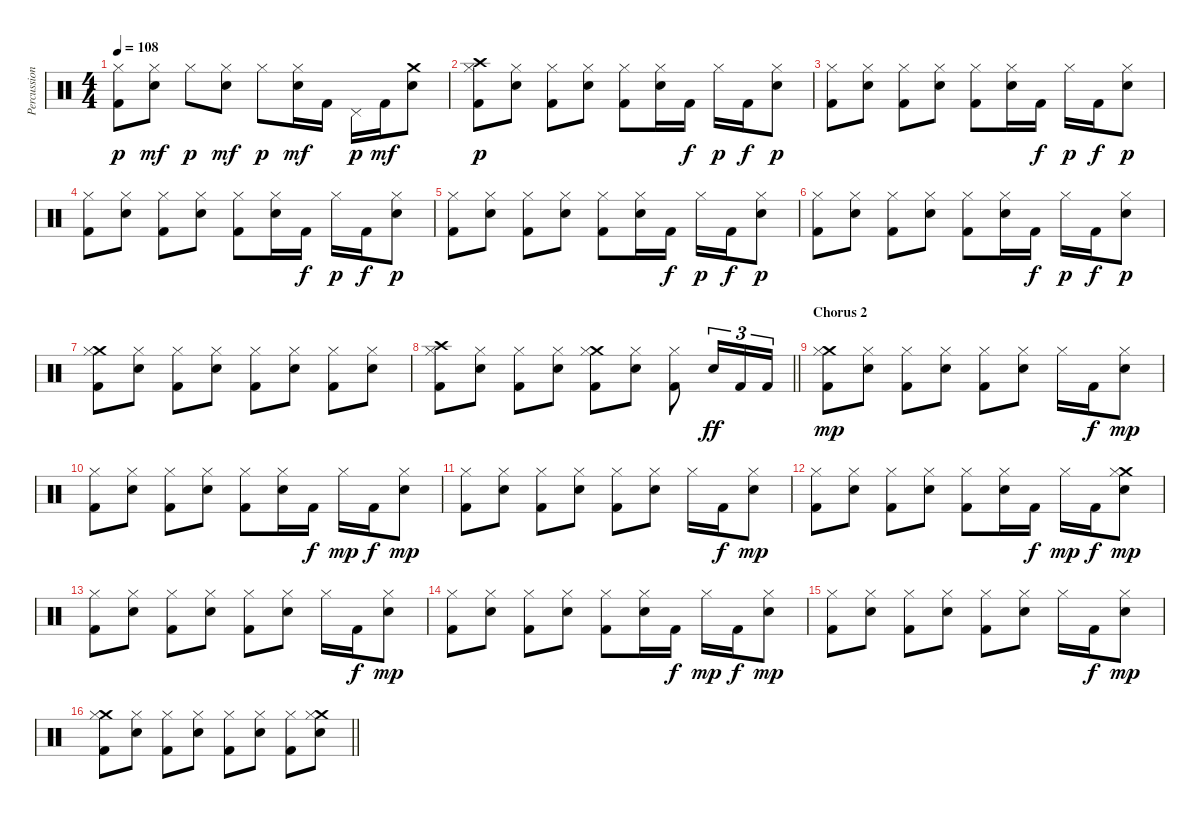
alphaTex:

\track ("Percussion" "Percussion") {instrument percussion}
\staff {score}
\articulation defaults
\ts (4 4)
\tempo 108
\clef neutral
\ks c
("Hi-Hat (closed)" "Kick (hit) 2").8{dy p} ("Hi-Hat (closed)" "Snare (hit) 2").8{dy mf} "Hi-Hat (closed)".8{dy p} ("Hi-Hat (closed)" "Snare (hit) 2").8{dy mf} "Hi-Hat (closed)".8{dy p} ("Hi-Hat (closed)" "Snare (hit) 2").16{dy mf} "Kick (hit) 2".16 "Pedal Hi-Hat (hit)".16{dy p} "Kick (hit) 2".16{dy mf} ("Crash medium (hit)" "Snare (hit) 2").8 |
("Crash high (hit)" "Hi-Hat (closed)" "Kick (hit) 2").8{dy p} ("Hi-Hat (closed)" "Snare (hit) 2").8 ("Hi-Hat (closed)" "Kick (hit) 2").8 ("Hi-Hat (closed)" "Snare (hit) 2").8 ("Hi-Hat (closed)" "Kick (hit) 2").8 ("Hi-Hat (closed)" "Snare (hit) 2").16 "Kick (hit) 2".16{dy f} "Hi-Hat (closed)".16{dy p} "Kick (hit) 2".16{dy f} ("Hi-Hat (closed)" "Snare (hit) 2").8{dy p} |
("Hi-Hat (closed)" "Kick (hit) 2").8 ("Hi-Hat (closed)" "Snare (hit) 2").8 ("Hi-Hat (closed)" "Kick (hit) 2").8 ("Hi-Hat (closed)" "Snare (hit) 2").8 ("Hi-Hat (closed)" "Kick (hit) 2").8 ("Hi-Hat (closed)" "Snare (hit) 2").16 "Kick (hit) 2".16{dy f} "Hi-Hat (closed)".16{dy p} "Kick (hit) 2".16{dy f} ("Hi-Hat (closed)" "Snare (hit) 2").8{dy p} |
("Hi-Hat (closed)" "Kick (hit) 2").8 ("Hi-Hat (closed)" "Snare (hit) 2").8 ("Hi-Hat (closed)" "Kick (hit) 2").8 ("Hi-Hat (closed)" "Snare (hit) 2").8 ("Hi-Hat (closed)" "Kick (hit) 2").8 ("Hi-Hat (closed)" "Snare (hit) 2").16 "Kick (hit) 2".16{dy f} "Hi-Hat (closed)".16{dy p} "Kick (hit) 2".16{dy f} ("Hi-Hat (closed)" "Snare (hit) 2").8{dy p} |
("Hi-Hat (closed)" "Kick (hit) 2").8 ("Hi-Hat (closed)" "Snare (hit) 2").8 ("Hi-Hat (closed)" "Kick (hit) 2").8 ("Hi-Hat (closed)" "Snare (hit) 2").8 ("Hi-Hat (closed)" "Kick (hit) 2").8 ("Hi-Hat (closed)" "Snare (hit) 2").16 "Kick (hit) 2".16{dy f} "Hi-Hat (closed)".16{dy p} "Kick (hit) 2".16{dy f} ("Hi-Hat (closed)" "Snare (hit) 2").8{dy p} |
("Hi-Hat (closed)" "Kick (hit) 2").8 ("Hi-Hat (closed)" "Snare (hit) 2").8 ("Hi-Hat (closed)" "Kick (hit) 2").8 ("Hi-Hat (closed)" "Snare (hit) 2").8 ("Hi-Hat (closed)" "Kick (hit) 2").8 ("Hi-Hat (closed)" "Snare (hit) 2").16 "Kick (hit) 2".16{dy f} "Hi-Hat (closed)".16{dy p} "Kick (hit) 2".16{dy f} ("Hi-Hat (closed)" "Snare (hit) 2").8{dy p} |
("Crash medium (hit)" "Hi-Hat (closed)" "Kick (hit) 2").8 ("Hi-Hat (closed)" "Snare (hit) 2").8 ("Hi-Hat (closed)" "Kick (hit) 2").8 ("Hi-Hat (closed)" "Snare (hit) 2").8 ("Hi-Hat (closed)" "Kick (hit) 2").8 ("Hi-Hat (closed)" "Snare (hit) 2").8 ("Hi-Hat (closed)" "Kick (hit) 2").8 ("Hi-Hat (closed)" "Snare (hit) 2").8 |
\barLineRight lightlight
("Crash high (hit)" "Hi-Hat (closed)" "Kick (hit) 2").8 ("Hi-Hat (closed)" "Snare (hit) 2").8 ("Hi-Hat (closed)" "Kick (hit) 2").8 ("Hi-Hat (closed)" "Snare (hit) 2").8 ("Crash medium (hit)" "Hi-Hat (closed)" "Kick (hit) 2").8 ("Hi-Hat (closed)" "Snare (hit) 2").8 ("Hi-Hat (closed)" "Kick (hit) 2").8 "Snare (hit) 2".16{tu (3 2) dy ff} "Kick (hit) 2".16{tu (3 2)} "Kick (hit) 2".16{tu (3 2)} |
\section ("" "Chorus 2")
("Crash medium (hit)" "Hi-Hat (closed)" "Kick (hit) 2").8{dy mp} ("Hi-Hat (closed)" "Snare (hit) 2").8 ("Hi-Hat (closed)" "Kick (hit) 2").8 ("Hi-Hat (closed)" "Snare (hit) 2").8 ("Hi-Hat (closed)" "Kick (hit) 2").8 ("Hi-Hat (closed)" "Snare (hit) 2").8 "Hi-Hat (closed)".16 "Kick (hit) 2".16{dy f} ("Hi-Hat (closed)" "Snare (hit) 2").8{dy mp} |
("Hi-Hat (closed)" "Kick (hit) 2").8 ("Hi-Hat (closed)" "Snare (hit) 2").8 ("Hi-Hat (closed)" "Kick (hit) 2").8 ("Hi-Hat (closed)" "Snare (hit) 2").8 ("Hi-Hat (closed)" "Kick (hit) 2").8 ("Hi-Hat (closed)" "Snare (hit) 2").16 "Kick (hit) 2".16{dy f} "Hi-Hat (closed)".16{dy mp} "Kick (hit) 2".16{dy f} ("Hi-Hat (closed)" "Snare (hit) 2").8{dy mp} |
("Hi-Hat (closed)" "Kick (hit) 2").8 ("Hi-Hat (closed)" "Snare (hit) 2").8 ("Hi-Hat (closed)" "Kick (hit) 2").8 ("Hi-Hat (closed)" "Snare (hit) 2").8 ("Hi-Hat (closed)" "Kick (hit) 2").8 ("Hi-Hat (closed)" "Snare (hit) 2").8 "Hi-Hat (closed)".16 "Kick (hit) 2".16{dy f} ("Hi-Hat (closed)" "Snare (hit) 2").8{dy mp} |
("Hi-Hat (closed)" "Kick (hit) 2").8 ("Hi-Hat (closed)" "Snare (hit) 2").8 ("Hi-Hat (closed)" "Kick (hit) 2").8 ("Hi-Hat (closed)" "Snare (hit) 2").8 ("Hi-Hat (closed)" "Kick (hit) 2").8 ("Hi-Hat (closed)" "Snare (hit) 2").16 "Kick (hit) 2".16{dy f} "Hi-Hat (closed)".16{dy mp} "Kick (hit) 2".16{dy f} ("Crash medium (hit)" "Hi-Hat (closed)" "Snare (hit) 2").8{dy mp} |
("Hi-Hat (closed)" "Kick (hit) 2").8 ("Hi-Hat (closed)" "Snare (hit) 2").8 ("Hi-Hat (closed)" "Kick (hit) 2").8 ("Hi-Hat (closed)" "Snare (hit) 2").8 ("Hi-Hat (closed)" "Kick (hit) 2").8 ("Hi-Hat (closed)" "Snare (hit) 2").8 "Hi-Hat (closed)".16 "Kick (hit) 2".16{dy f} ("Hi-Hat (closed)" "Snare (hit) 2").8{dy mp} |
("Hi-Hat (closed)" "Kick (hit) 2").8 ("Hi-Hat (closed)" "Snare (hit) 2").8 ("Hi-Hat (closed)" "Kick (hit) 2").8 ("Hi-Hat (closed)" "Snare (hit) 2").8 ("Hi-Hat (closed)" "Kick (hit) 2").8 ("Hi-Hat (closed)" "Snare (hit) 2").16 "Kick (hit) 2".16{dy f} "Hi-Hat (closed)".16{dy mp} "Kick (hit) 2".16{dy f} ("Hi-Hat (closed)" "Snare (hit) 2").8{dy mp} |
("Hi-Hat (closed)" "Kick (hit) 2").8 ("Hi-Hat (closed)" "Snare (hit) 2").8 ("Hi-Hat (closed)" "Kick (hit) 2").8 ("Hi-Hat (closed)" "Snare (hit) 2").8 ("Hi-Hat (closed)" "Kick (hit) 2").8 ("Hi-Hat (closed)" "Snare (hit) 2").8 "Hi-Hat (closed)".16 "Kick (hit) 2".16{dy f} ("Hi-Hat (closed)" "Snare (hit) 2").8{dy mp} |
\barLineRight lightlight
("Crash medium (hit)" "Hi-Hat (closed)" "Kick (hit) 2").8 ("Hi-Hat (closed)" "Snare (hit) 2").8 ("Hi-Hat (closed)" "Kick (hit) 2").8 ("Hi-Hat (closed)" "Snare (hit) 2").8 ("Hi-Hat (closed)" "Kick (hit) 2").8 ("Hi-Hat (closed)" "Snare (hit) 2").8 ("Hi-Hat (closed)" "Kick (hit) 2").8 ("Crash medium (hit)" "Hi-Hat (closed)" "Snare (hit) 2").8
